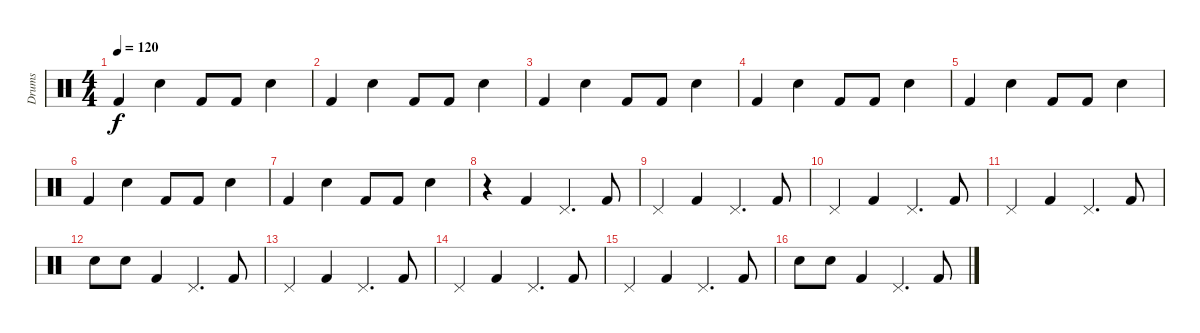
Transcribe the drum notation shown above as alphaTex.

\track ("Drums" "Drums") {instrument percussion}
\staff {score}
\articulation defaults
\ts (4 4)
\tempo 120
\clef neutral
\ks c "Kick (hit) 2".4{dy f} "Snare (hit) 2".4 "Kick (hit) 2".8 "Kick (hit) 2".8 "Snare (hit) 2".4
|
"Kick (hit) 2".4 "Snare (hit) 2".4 "Kick (hit) 2".8 "Kick (hit) 2".8 "Snare (hit) 2".4 |
"Kick (hit) 2".4 "Snare (hit) 2".4 "Kick (hit) 2".8 "Kick (hit) 2".8 "Snare (hit) 2".4 |
"Kick (hit) 2".4 "Snare (hit) 2".4 "Kick (hit) 2".8 "Kick (hit) 2".8 "Snare (hit) 2".4 |
"Kick (hit) 2".4 "Snare (hit) 2".4 "Kick (hit) 2".8 "Kick (hit) 2".8 "Snare (hit) 2".4 |
"Kick (hit) 2".4 "Snare (hit) 2".4 "Kick (hit) 2".8 "Kick (hit) 2".8 "Snare (hit) 2".4 |
"Kick (hit) 2".4 "Snare (hit) 2".4 "Kick (hit) 2".8 "Kick (hit) 2".8 "Snare (hit) 2".4 |
r.4 "Kick (hit) 2".4 "Pedal Hi-Hat (hit)".4{d} "Kick (hit) 2".8 |
"Pedal Hi-Hat (hit)".4 "Kick (hit) 2".4 "Pedal Hi-Hat (hit)".4{d} "Kick (hit) 2".8 |
"Pedal Hi-Hat (hit)".4 "Kick (hit) 2".4 "Pedal Hi-Hat (hit)".4{d} "Kick (hit) 2".8 |
"Pedal Hi-Hat (hit)".4 "Kick (hit) 2".4 "Pedal Hi-Hat (hit)".4{d} "Kick (hit) 2".8 |
"Snare (hit) 2".8 "Snare (hit) 2".8 "Kick (hit) 2".4 "Pedal Hi-Hat (hit)".4{d} "Kick (hit) 2".8 |
"Pedal Hi-Hat (hit)".4 "Kick (hit) 2".4 "Pedal Hi-Hat (hit)".4{d} "Kick (hit) 2".8 |
"Pedal Hi-Hat (hit)".4 "Kick (hit) 2".4 "Pedal Hi-Hat (hit)".4{d} "Kick (hit) 2".8 |
"Pedal Hi-Hat (hit)".4 "Kick (hit) 2".4 "Pedal Hi-Hat (hit)".4{d} "Kick (hit) 2".8 |
"Snare (hit) 2".8 "Snare (hit) 2".8 "Kick (hit) 2".4 "Pedal Hi-Hat (hit)".4{d} "Kick (hit) 2".8
